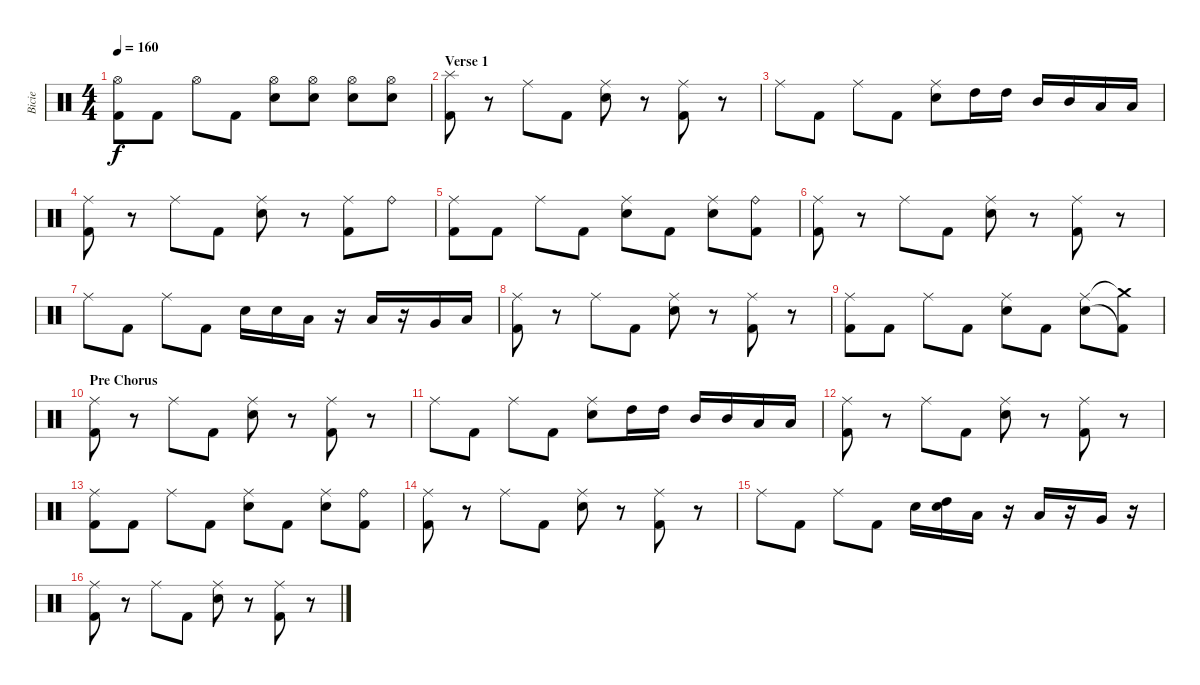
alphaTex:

\track ("Bicie" "Bicie") {instrument percussion}
\staff {score}
\articulation defaults
\ts (4 4)
\tempo 160
\clef neutral
\ks c
("Hi-Hat (open)" "Kick (hit) 2").8{dy f} "Kick (hit) 2".8 "Hi-Hat (open)".8 "Kick (hit) 2".8 ("Hi-Hat (open)" "Electric Snare (hit)").8 ("Hi-Hat (open)" "Electric Snare (hit)").8 ("Hi-Hat (open)" "Electric Snare (hit)").8 ("Hi-Hat (open)" "Electric Snare (hit)").8 |
\section ("" "Verse 1")
("Splash (hit)" "Kick (hit) 2").8 r.8 "Ride (middle)".8 "Kick (hit) 2".8 ("Ride (middle)" "Electric Snare (hit)").8 r.8 ("Ride (middle)" "Kick (hit) 2").8 r.8 |
"Ride (middle)".8 "Kick (hit) 2".8 "Ride (middle)".8 "Kick (hit) 2".8 ("Ride (middle)" "Electric Snare (hit)").8 "High Tom (hit)".16 "High Tom (hit)".16 "Mid Tom (hit)".16 "Mid Tom (hit)".16 "Low Tom (hit)".16 "Low Tom (hit)".16 |
("Ride (middle)" "Kick (hit) 2").8 r.8 "Ride (middle)".8 "Kick (hit) 2".8 ("Ride (middle)" "Electric Snare (hit)").8 r.8 ("Ride (middle)" "Kick (hit) 2").8 "Ride (bell)".8 |
("Ride (middle)" "Kick (hit) 2").8 "Kick (hit) 2".8 "Ride (middle)".8 "Kick (hit) 2".8 ("Ride (middle)" "Electric Snare (hit)").8 "Kick (hit) 2".8 ("Ride (middle)" "Electric Snare (hit)").8 ("Ride (bell)" "Kick (hit) 2").8 |
("Ride (middle)" "Kick (hit) 2").8 r.8 "Ride (middle)".8 "Kick (hit) 2".8 ("Ride (middle)" "Electric Snare (hit)").8 r.8 ("Ride (middle)" "Kick (hit) 2").8 r.8 |
"Ride (middle)".8 "Kick (hit) 2".8 "Ride (middle)".8 "Kick (hit) 2".8 "Electric Snare (hit)".16 "Electric Snare (hit)".16 "Low Tom (hit)".16 r.16 "Low Tom (hit)".16 r.16 "Very Low Tom (hit)".16 "Low Floor Tom (hit)".16 |
("Ride (middle)" "Kick (hit) 2").8 r.8 "Ride (middle)".8 "Kick (hit) 2".8 ("Ride (middle)" "Electric Snare (hit)").8 r.8 ("Ride (middle)" "Kick (hit) 2").8 r.8 |
("Ride (middle)" "Kick (hit) 2").8 "Kick (hit) 2".8 "Ride (middle)".8 "Kick (hit) 2".8 ("Ride (middle)" "Electric Snare (hit)").8 "Kick (hit) 2".8 ("Ride (middle)" "Electric Snare (hit)").8 ("Crash medium (hit)"{t} "Kick (hit) 2"{t}).8 |
\section ("" "Pre Chorus")
("Ride (middle)" "Kick (hit) 2").8 r.8 "Ride (middle)".8 "Kick (hit) 2".8 ("Ride (middle)" "Electric Snare (hit)").8 r.8 ("Ride (middle)" "Kick (hit) 2").8 r.8 |
"Ride (middle)".8 "Kick (hit) 2".8 "Ride (middle)".8 "Kick (hit) 2".8 ("Ride (middle)" "Electric Snare (hit)").8 "High Tom (hit)".16 "High Tom (hit)".16 "Mid Tom (hit)".16 "Mid Tom (hit)".16 "Low Tom (hit)".16 "Low Tom (hit)".16 |
("Ride (middle)" "Kick (hit) 2").8 r.8 "Ride (middle)".8 "Kick (hit) 2".8 ("Ride (middle)" "Electric Snare (hit)").8 r.8 ("Ride (middle)" "Kick (hit) 2").8 r.8 |
("Ride (middle)" "Kick (hit) 2").8 "Kick (hit) 2".8 "Ride (middle)".8 "Kick (hit) 2".8 ("Ride (middle)" "Electric Snare (hit)").8 "Kick (hit) 2".8 ("Ride (middle)" "Electric Snare (hit)").8 ("Ride (bell)" "Kick (hit) 2").8 |
("Ride (middle)" "Kick (hit) 2").8 r.8 "Ride (middle)".8 "Kick (hit) 2".8 ("Ride (middle)" "Electric Snare (hit)").8 r.8 ("Ride (middle)" "Kick (hit) 2").8 r.8 |
"Ride (middle)".8 "Kick (hit) 2".8 "Ride (middle)".8 "Kick (hit) 2".8 "Electric Snare (hit)".16 ("High Tom (hit)" "Electric Snare (hit)").16 "Low Tom (hit)".16 r.16 "Low Tom (hit)".16 r.16 "Very Low Tom (hit)".16 r.16 |
("Ride (middle)" "Kick (hit) 2").8 r.8 "Ride (middle)".8 "Kick (hit) 2".8 ("Ride (middle)" "Electric Snare (hit)").8 r.8 ("Ride (middle)" "Kick (hit) 2").8 r.8
